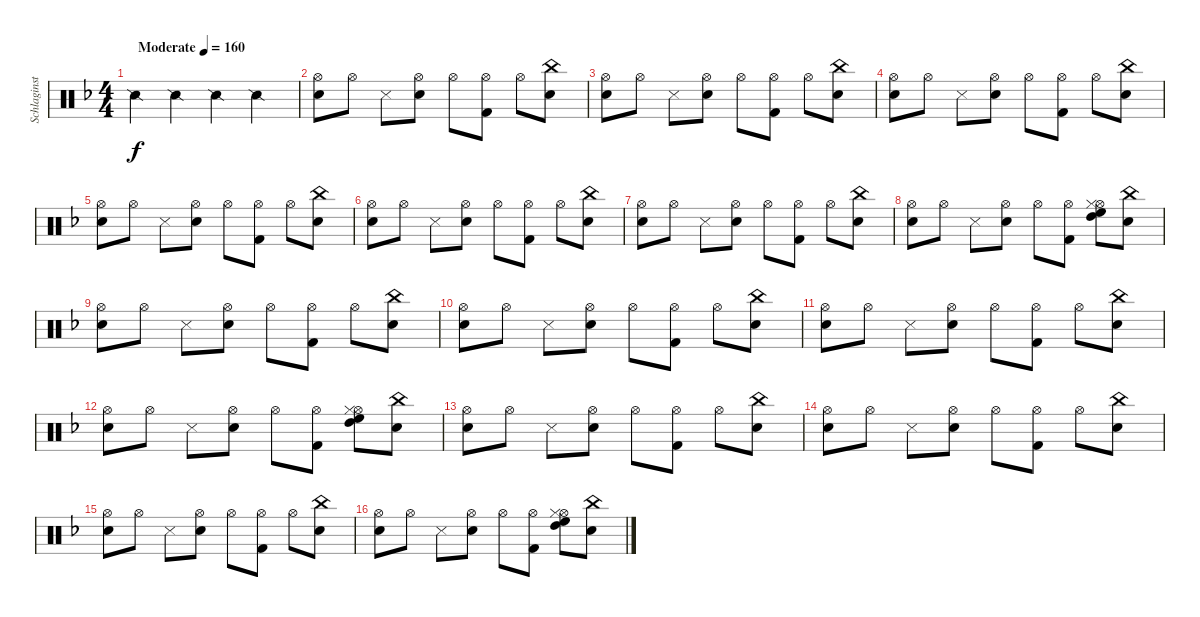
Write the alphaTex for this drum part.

\track ("Schlaginstrumente - Auswahl" "Schlaginst") {instrument percussion}
\staff {score}
\articulation defaults
\ts (4 4)
\tempo (160 "Moderate")
\clef neutral
\ks dminor "Snare (side stick) 2".4{dy f} "Snare (side stick) 2".4 "Snare (side stick) 2".4 "Snare (side stick) 2".4
|
("Snare (hit) 2" "Hi-Hat (open)").8 "Hi-Hat (open)".8 "Snare (side stick) 3".8 ("Hi-Hat (open)" "Snare (hit) 2").8 "Hi-Hat (open)".8 ("Hi-Hat (open)" "Kick (hit) 2").8 "Hi-Hat (open)".8 ("China (hit)" "Electric Snare (hit)").8 |
("Snare (hit) 2" "Hi-Hat (open)").8 "Hi-Hat (open)".8 "Snare (side stick) 3".8 ("Hi-Hat (open)" "Snare (hit) 2").8 "Hi-Hat (open)".8 ("Hi-Hat (open)" "Kick (hit) 2").8 "Hi-Hat (open)".8 ("China (hit)" "Electric Snare (hit)").8 |
("Snare (hit) 2" "Hi-Hat (open)").8 "Hi-Hat (open)".8 "Snare (side stick) 3".8 ("Hi-Hat (open)" "Snare (hit) 2").8 "Hi-Hat (open)".8 ("Hi-Hat (open)" "Kick (hit) 2").8 "Hi-Hat (open)".8 ("China (hit)" "Electric Snare (hit)").8 |
("Snare (hit) 2" "Hi-Hat (open)").8 "Hi-Hat (open)".8 "Snare (side stick) 3".8 ("Hi-Hat (open)" "Snare (hit) 2").8 "Hi-Hat (open)".8 ("Hi-Hat (open)" "Kick (hit) 2").8 "Hi-Hat (open)".8 ("China (hit)" "Electric Snare (hit)").8 |
("Snare (hit) 2" "Hi-Hat (open)").8 "Hi-Hat (open)".8 "Snare (side stick) 3".8 ("Hi-Hat (open)" "Snare (hit) 2").8 "Hi-Hat (open)".8 ("Hi-Hat (open)" "Kick (hit) 2").8 "Hi-Hat (open)".8 ("China (hit)" "Electric Snare (hit)").8 |
("Snare (hit) 2" "Hi-Hat (open)").8 "Hi-Hat (open)".8 "Snare (side stick) 3".8 ("Hi-Hat (open)" "Snare (hit) 2").8 "Hi-Hat (open)".8 ("Hi-Hat (open)" "Kick (hit) 2").8 "Hi-Hat (open)".8 ("China (hit)" "Electric Snare (hit)").8 |
("Snare (hit) 2" "Hi-Hat (open)").8 "Hi-Hat (open)".8 "Snare (side stick) 3".8 ("Hi-Hat (open)" "Snare (hit) 2").8 "Hi-Hat (open)".8 ("Hi-Hat (open)" "Kick (hit) 2").8 ("Hi-Hat (open)" "High Tom (hit)" "Hi-Hat (closed)" "High Floor Tom (hit)").8 ("China (hit)" "Electric Snare (hit)").8 |
("Snare (hit) 2" "Hi-Hat (open)").8 "Hi-Hat (open)".8 "Snare (side stick) 3".8 ("Hi-Hat (open)" "Snare (hit) 2").8 "Hi-Hat (open)".8 ("Hi-Hat (open)" "Kick (hit) 2").8 "Hi-Hat (open)".8 ("China (hit)" "Electric Snare (hit)").8 |
("Snare (hit) 2" "Hi-Hat (open)").8 "Hi-Hat (open)".8 "Snare (side stick) 3".8 ("Hi-Hat (open)" "Snare (hit) 2").8 "Hi-Hat (open)".8 ("Hi-Hat (open)" "Kick (hit) 2").8 "Hi-Hat (open)".8 ("China (hit)" "Electric Snare (hit)").8 |
("Snare (hit) 2" "Hi-Hat (open)").8 "Hi-Hat (open)".8 "Snare (side stick) 3".8 ("Hi-Hat (open)" "Snare (hit) 2").8 "Hi-Hat (open)".8 ("Hi-Hat (open)" "Kick (hit) 2").8 "Hi-Hat (open)".8 ("China (hit)" "Electric Snare (hit)").8 |
("Snare (hit) 2" "Hi-Hat (open)").8 "Hi-Hat (open)".8 "Snare (side stick) 3".8 ("Hi-Hat (open)" "Snare (hit) 2").8 "Hi-Hat (open)".8 ("Hi-Hat (open)" "Kick (hit) 2").8 ("Hi-Hat (open)" "High Tom (hit)" "Hi-Hat (closed)" "High Floor Tom (hit)").8 ("China (hit)" "Electric Snare (hit)").8 |
("Snare (hit) 2" "Hi-Hat (open)").8 "Hi-Hat (open)".8 "Snare (side stick) 3".8 ("Hi-Hat (open)" "Snare (hit) 2").8 "Hi-Hat (open)".8 ("Hi-Hat (open)" "Kick (hit) 2").8 "Hi-Hat (open)".8 ("China (hit)" "Electric Snare (hit)").8 |
("Snare (hit) 2" "Hi-Hat (open)").8 "Hi-Hat (open)".8 "Snare (side stick) 3".8 ("Hi-Hat (open)" "Snare (hit) 2").8 "Hi-Hat (open)".8 ("Hi-Hat (open)" "Kick (hit) 2").8 "Hi-Hat (open)".8 ("China (hit)" "Electric Snare (hit)").8 |
("Snare (hit) 2" "Hi-Hat (open)").8 "Hi-Hat (open)".8 "Snare (side stick) 3".8 ("Hi-Hat (open)" "Snare (hit) 2").8 "Hi-Hat (open)".8 ("Hi-Hat (open)" "Kick (hit) 2").8 "Hi-Hat (open)".8 ("China (hit)" "Electric Snare (hit)").8 |
("Snare (hit) 2" "Hi-Hat (open)").8 "Hi-Hat (open)".8 "Snare (side stick) 3".8 ("Hi-Hat (open)" "Snare (hit) 2").8 "Hi-Hat (open)".8 ("Hi-Hat (open)" "Kick (hit) 2").8 ("Hi-Hat (open)" "High Tom (hit)" "Hi-Hat (closed)" "High Floor Tom (hit)").8 ("China (hit)" "Electric Snare (hit)").8
